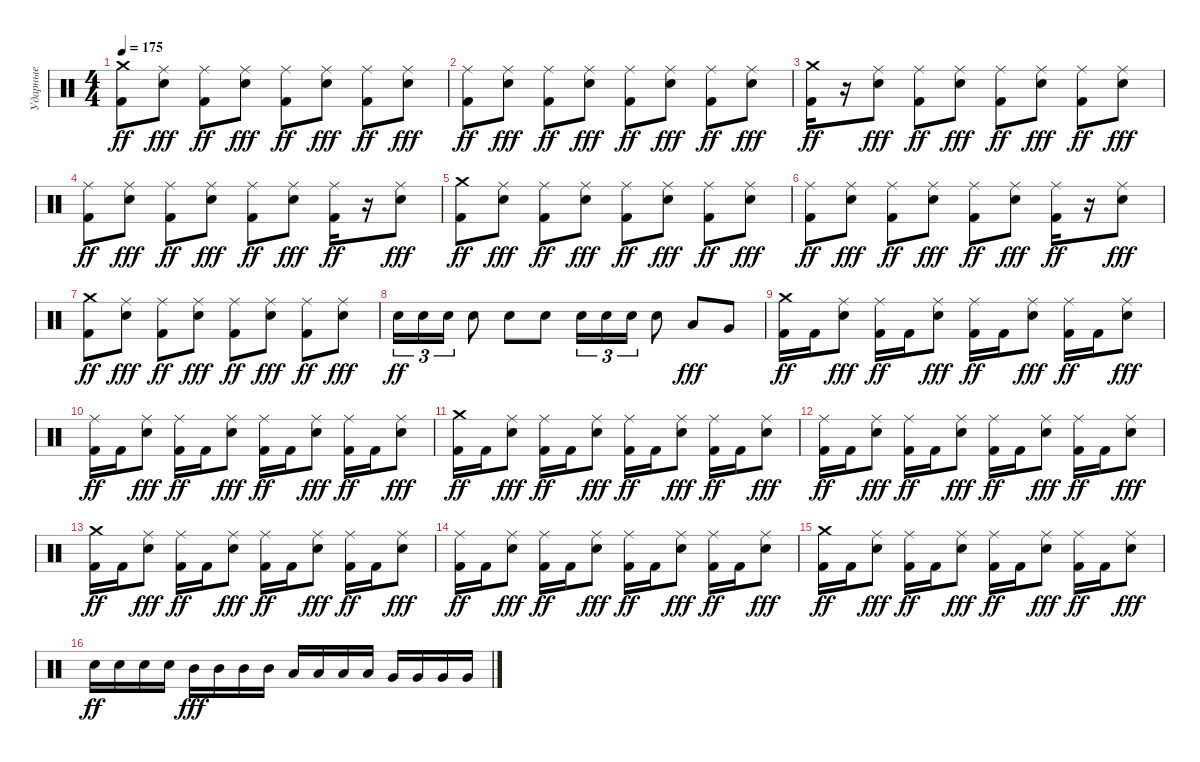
\track ("Ударные" "Ударные") {instrument percussion}
\staff {score}
\articulation defaults
\ts (4 4)
\tempo 175
\clef neutral
\ks c
("Kick (hit) 2" "Crash medium (hit)").8{dy ff} ("Electric Snare (hit)" "Ride (middle)").8{dy fff} ("Kick (hit) 2" "Ride (middle)").8{dy ff} ("Electric Snare (hit)" "Ride (middle)").8{dy fff} ("Kick (hit) 2" "Ride (middle)").8{dy ff} ("Electric Snare (hit)" "Ride (middle)").8{dy fff} ("Kick (hit) 2" "Ride (middle)").8{dy ff} ("Electric Snare (hit)" "Ride (middle)").8{dy fff} |
("Kick (hit) 2" "Ride (middle)").8{dy ff} ("Electric Snare (hit)" "Ride (middle)").8{dy fff} ("Kick (hit) 2" "Ride (middle)").8{dy ff} ("Electric Snare (hit)" "Ride (middle)").8{dy fff} ("Kick (hit) 2" "Ride (middle)").8{dy ff} ("Electric Snare (hit)" "Ride (middle)").8{dy fff} ("Kick (hit) 2" "Ride (middle)").8{dy ff} ("Electric Snare (hit)" "Ride (middle)").8{dy fff} |
("Kick (hit) 2" "Crash medium (hit)").16{dy ff} r.16 ("Electric Snare (hit)" "Ride (middle)").8{dy fff} ("Kick (hit) 2" "Ride (middle)").8{dy ff} ("Electric Snare (hit)" "Ride (middle)").8{dy fff} ("Kick (hit) 2" "Ride (middle)").8{dy ff} ("Electric Snare (hit)" "Ride (middle)").8{dy fff} ("Kick (hit) 2" "Ride (middle)").8{dy ff} ("Electric Snare (hit)" "Ride (middle)").8{dy fff} |
("Kick (hit) 2" "Ride (middle)").8{dy ff} ("Electric Snare (hit)" "Ride (middle)").8{dy fff} ("Kick (hit) 2" "Ride (middle)").8{dy ff} ("Electric Snare (hit)" "Ride (middle)").8{dy fff} ("Kick (hit) 2" "Ride (middle)").8{dy ff} ("Electric Snare (hit)" "Ride (middle)").8{dy fff} ("Kick (hit) 2" "Ride (middle)").16{dy ff} r.16 ("Electric Snare (hit)" "Ride (middle)").8{dy fff} |
("Kick (hit) 2" "Crash medium (hit)").8{dy ff} ("Electric Snare (hit)" "Ride (middle)").8{dy fff} ("Kick (hit) 2" "Ride (middle)").8{dy ff} ("Electric Snare (hit)" "Ride (middle)").8{dy fff} ("Kick (hit) 2" "Ride (middle)").8{dy ff} ("Electric Snare (hit)" "Ride (middle)").8{dy fff} ("Kick (hit) 2" "Ride (middle)").8{dy ff} ("Electric Snare (hit)" "Ride (middle)").8{dy fff} |
("Kick (hit) 2" "Ride (middle)").8{dy ff} ("Electric Snare (hit)" "Ride (middle)").8{dy fff} ("Kick (hit) 2" "Ride (middle)").8{dy ff} ("Electric Snare (hit)" "Ride (middle)").8{dy fff} ("Kick (hit) 2" "Ride (middle)").8{dy ff} ("Electric Snare (hit)" "Ride (middle)").8{dy fff} ("Kick (hit) 2" "Ride (middle)").16{dy ff} r.16 ("Electric Snare (hit)" "Ride (middle)").8{dy fff} |
("Kick (hit) 2" "Crash medium (hit)").8{dy ff} ("Electric Snare (hit)" "Ride (middle)").8{dy fff} ("Kick (hit) 2" "Ride (middle)").8{dy ff} ("Electric Snare (hit)" "Ride (middle)").8{dy fff} ("Kick (hit) 2" "Ride (middle)").8{dy ff} ("Electric Snare (hit)" "Ride (middle)").8{dy fff} ("Kick (hit) 2" "Ride (middle)").8{dy ff} ("Electric Snare (hit)" "Ride (middle)").8{dy fff} |
"Electric Snare (hit)".16{tu (3 2) dy ff} "Electric Snare (hit)".16{tu (3 2)} "Electric Snare (hit)".16{tu (3 2)} "Electric Snare (hit)".8 "Electric Snare (hit)".8 "Electric Snare (hit)".8 "Electric Snare (hit)".16{tu (3 2)} "Electric Snare (hit)".16{tu (3 2)} "Electric Snare (hit)".16{tu (3 2)} "Electric Snare (hit)".8 "Low Tom (hit)".8{dy fff} "Very Low Tom (hit)".8 |
("Kick (hit) 2" "Crash medium (hit)").16{dy ff} "Kick (hit) 2".16 ("Electric Snare (hit)" "Ride (middle)").8{dy fff} ("Kick (hit) 2" "Ride (middle)").16{dy ff} "Kick (hit) 2".16 ("Electric Snare (hit)" "Ride (middle)").8{dy fff} ("Kick (hit) 2" "Ride (middle)").16{dy ff} "Kick (hit) 2".16 ("Electric Snare (hit)" "Ride (middle)").8{dy fff} ("Kick (hit) 2" "Ride (middle)").16{dy ff} "Kick (hit) 2".16 ("Electric Snare (hit)" "Ride (middle)").8{dy fff} |
("Kick (hit) 2" "Ride (middle)").16{dy ff} "Kick (hit) 2".16 ("Electric Snare (hit)" "Ride (middle)").8{dy fff} ("Kick (hit) 2" "Ride (middle)").16{dy ff} "Kick (hit) 2".16 ("Electric Snare (hit)" "Ride (middle)").8{dy fff} ("Kick (hit) 2" "Ride (middle)").16{dy ff} "Kick (hit) 2".16 ("Electric Snare (hit)" "Ride (middle)").8{dy fff} ("Kick (hit) 2" "Ride (middle)").16{dy ff} "Kick (hit) 2".16 ("Electric Snare (hit)" "Ride (middle)").8{dy fff} |
("Kick (hit) 2" "Crash medium (hit)").16{dy ff} "Kick (hit) 2".16 ("Electric Snare (hit)" "Ride (middle)").8{dy fff} ("Kick (hit) 2" "Ride (middle)").16{dy ff} "Kick (hit) 2".16 ("Electric Snare (hit)" "Ride (middle)").8{dy fff} ("Kick (hit) 2" "Ride (middle)").16{dy ff} "Kick (hit) 2".16 ("Electric Snare (hit)" "Ride (middle)").8{dy fff} ("Kick (hit) 2" "Ride (middle)").16{dy ff} "Kick (hit) 2".16 ("Electric Snare (hit)" "Ride (middle)").8{dy fff} |
("Kick (hit) 2" "Ride (middle)").16{dy ff} "Kick (hit) 2".16 ("Electric Snare (hit)" "Ride (middle)").8{dy fff} ("Kick (hit) 2" "Ride (middle)").16{dy ff} "Kick (hit) 2".16 ("Electric Snare (hit)" "Ride (middle)").8{dy fff} ("Kick (hit) 2" "Ride (middle)").16{dy ff} "Kick (hit) 2".16 ("Electric Snare (hit)" "Ride (middle)").8{dy fff} ("Kick (hit) 2" "Ride (middle)").16{dy ff} "Kick (hit) 2".16 ("Electric Snare (hit)" "Ride (middle)").8{dy fff} |
("Kick (hit) 2" "Crash medium (hit)").16{dy ff} "Kick (hit) 2".16 ("Electric Snare (hit)" "Ride (middle)").8{dy fff} ("Kick (hit) 2" "Ride (middle)").16{dy ff} "Kick (hit) 2".16 ("Electric Snare (hit)" "Ride (middle)").8{dy fff} ("Kick (hit) 2" "Ride (middle)").16{dy ff} "Kick (hit) 2".16 ("Electric Snare (hit)" "Ride (middle)").8{dy fff} ("Kick (hit) 2" "Ride (middle)").16{dy ff} "Kick (hit) 2".16 ("Electric Snare (hit)" "Ride (middle)").8{dy fff} |
("Kick (hit) 2" "Ride (middle)").16{dy ff} "Kick (hit) 2".16 ("Electric Snare (hit)" "Ride (middle)").8{dy fff} ("Kick (hit) 2" "Ride (middle)").16{dy ff} "Kick (hit) 2".16 ("Electric Snare (hit)" "Ride (middle)").8{dy fff} ("Kick (hit) 2" "Ride (middle)").16{dy ff} "Kick (hit) 2".16 ("Electric Snare (hit)" "Ride (middle)").8{dy fff} ("Kick (hit) 2" "Ride (middle)").16{dy ff} "Kick (hit) 2".16 ("Electric Snare (hit)" "Ride (middle)").8{dy fff} |
("Kick (hit) 2" "Crash medium (hit)").16{dy ff} "Kick (hit) 2".16 ("Electric Snare (hit)" "Ride (middle)").8{dy fff} ("Kick (hit) 2" "Ride (middle)").16{dy ff} "Kick (hit) 2".16 ("Electric Snare (hit)" "Ride (middle)").8{dy fff} ("Kick (hit) 2" "Ride (middle)").16{dy ff} "Kick (hit) 2".16 ("Electric Snare (hit)" "Ride (middle)").8{dy fff} ("Kick (hit) 2" "Ride (middle)").16{dy ff} "Kick (hit) 2".16 ("Electric Snare (hit)" "Ride (middle)").8{dy fff} |
"Electric Snare (hit)".16{dy ff} "Electric Snare (hit)".16 "Electric Snare (hit)".16 "Electric Snare (hit)".16 "Mid Tom (hit)".16{dy fff} "Mid Tom (hit)".16 "Mid Tom (hit)".16 "Mid Tom (hit)".16 "Low Tom (hit)".16 "Low Tom (hit)".16 "Low Tom (hit)".16 "Low Tom (hit)".16 "Very Low Tom (hit)".16 "Very Low Tom (hit)".16 "Very Low Tom (hit)".16 "Very Low Tom (hit)".16
